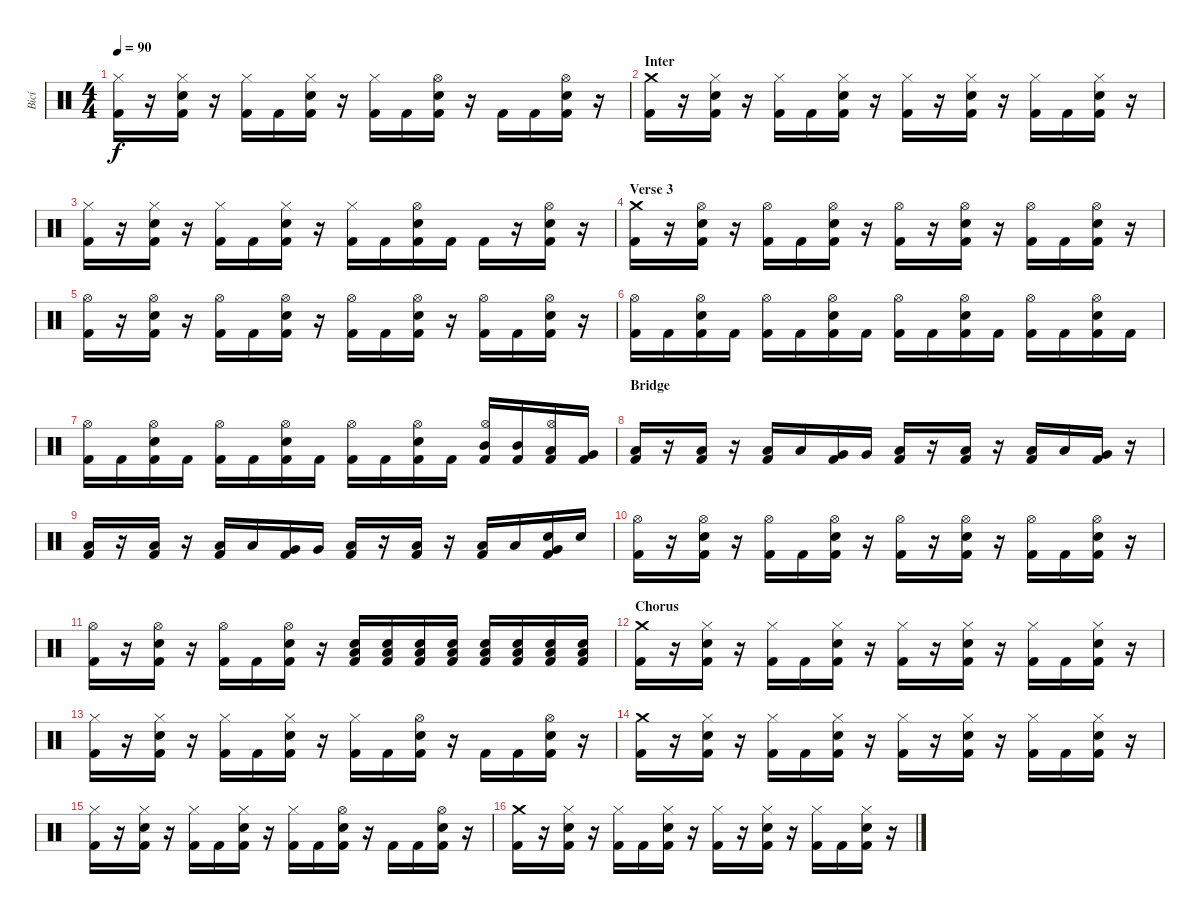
\track ("Bicí" "Bicí") {instrument percussion}
\staff {score}
\articulation defaults
\ts (4 4)
\tempo 90
\clef neutral
\ks c
("Hi-Hat (closed)" "Kick (hit) 2").16{dy f} r.16 ("Hi-Hat (closed)" "Electric Snare (hit)" "Kick (hit) 2").16 r.16 ("Hi-Hat (closed)" "Kick (hit) 2").16 "Kick (hit) 2".16 ("Hi-Hat (closed)" "Electric Snare (hit)" "Kick (hit) 2").16 r.16 ("Hi-Hat (closed)" "Kick (hit) 2").16 "Kick (hit) 2".16 ("Hi-Hat (open)" "Electric Snare (hit)" "Kick (hit) 2").16 r.16 "Kick (hit) 2".16 "Kick (hit) 2".16 ("Hi-Hat (open)" "Electric Snare (hit)" "Kick (hit) 2").16 r.16 |
\section ("" "Inter")
("Crash medium (hit)" "Kick (hit) 2").16 r.16 ("Hi-Hat (closed)" "Electric Snare (hit)" "Kick (hit) 2").16 r.16 ("Hi-Hat (closed)" "Kick (hit) 2").16 "Kick (hit) 2".16 ("Hi-Hat (closed)" "Electric Snare (hit)" "Kick (hit) 2").16 r.16 ("Hi-Hat (closed)" "Kick (hit) 2").16 r.16 ("Hi-Hat (closed)" "Electric Snare (hit)" "Kick (hit) 2").16 r.16 ("Hi-Hat (closed)" "Kick (hit) 2").16 "Kick (hit) 2".16 ("Hi-Hat (closed)" "Electric Snare (hit)" "Kick (hit) 2").16 r.16 |
("Hi-Hat (closed)" "Kick (hit) 2").16 r.16 ("Hi-Hat (closed)" "Electric Snare (hit)" "Kick (hit) 2").16 r.16 ("Hi-Hat (closed)" "Kick (hit) 2").16 "Kick (hit) 2".16 ("Hi-Hat (closed)" "Electric Snare (hit)" "Kick (hit) 2").16 r.16 ("Hi-Hat (closed)" "Kick (hit) 2").16 "Kick (hit) 2".16 ("Hi-Hat (open)" "Electric Snare (hit)" "Kick (hit) 2").16 "Kick (hit) 2".16 "Kick (hit) 2".16 r.16 ("Hi-Hat (open)" "Electric Snare (hit)" "Kick (hit) 2").16 r.16 |
\section ("" "Verse 3")
("Crash medium (hit)" "Kick (hit) 2").16 r.16 ("Hi-Hat (open)" "Electric Snare (hit)" "Kick (hit) 2").16 r.16 ("Hi-Hat (open)" "Kick (hit) 2").16 "Kick (hit) 2".16 ("Hi-Hat (open)" "Electric Snare (hit)" "Kick (hit) 2").16 r.16 ("Hi-Hat (open)" "Kick (hit) 2").16 r.16 ("Hi-Hat (open)" "Electric Snare (hit)" "Kick (hit) 2").16 r.16 ("Hi-Hat (open)" "Kick (hit) 2").16 "Kick (hit) 2".16 ("Hi-Hat (open)" "Electric Snare (hit)" "Kick (hit) 2").16 r.16 |
("Hi-Hat (open)" "Kick (hit) 2").16 r.16 ("Hi-Hat (open)" "Electric Snare (hit)" "Kick (hit) 2").16 r.16 ("Hi-Hat (open)" "Kick (hit) 2").16 "Kick (hit) 2".16 ("Hi-Hat (open)" "Electric Snare (hit)" "Kick (hit) 2").16 r.16 ("Hi-Hat (open)" "Kick (hit) 2").16 "Kick (hit) 2".16 ("Hi-Hat (open)" "Electric Snare (hit)" "Kick (hit) 2").16 r.16 ("Hi-Hat (open)" "Kick (hit) 2").16 "Kick (hit) 2".16 ("Hi-Hat (open)" "Electric Snare (hit)" "Kick (hit) 2").16 r.16 |
("Hi-Hat (open)" "Kick (hit) 2").16 "Kick (hit) 2".16 ("Hi-Hat (open)" "Electric Snare (hit)" "Kick (hit) 2").16 "Kick (hit) 2".16 ("Hi-Hat (open)" "Kick (hit) 2").16 "Kick (hit) 2".16 ("Hi-Hat (open)" "Electric Snare (hit)" "Kick (hit) 2").16 "Kick (hit) 2".16 ("Hi-Hat (open)" "Kick (hit) 2").16 "Kick (hit) 2".16 ("Hi-Hat (open)" "Electric Snare (hit)" "Kick (hit) 2").16 "Kick (hit) 2".16 ("Hi-Hat (open)" "Kick (hit) 2").16 "Kick (hit) 2".16 ("Hi-Hat (open)" "Electric Snare (hit)" "Kick (hit) 2").16 "Kick (hit) 2".16 |
("Hi-Hat (open)" "Kick (hit) 2").16 "Kick (hit) 2".16 ("Hi-Hat (open)" "Electric Snare (hit)" "Kick (hit) 2").16 "Kick (hit) 2".16 ("Hi-Hat (open)" "Kick (hit) 2").16 "Kick (hit) 2".16 ("Hi-Hat (open)" "Electric Snare (hit)" "Kick (hit) 2").16 "Kick (hit) 2".16 ("Hi-Hat (open)" "Kick (hit) 2").16 "Kick (hit) 2".16 ("Hi-Hat (open)" "Electric Snare (hit)" "Kick (hit) 2").16 "Kick (hit) 2".16 ("Hi-Hat (open)" "Mid Tom (hit)" "Kick (hit) 2").16 ("Mid Tom (hit)" "Kick (hit) 2").16 ("Hi-Hat (open)" "Low Tom (hit)" "Kick (hit) 2").16 ("Very Low Tom (hit)" "Kick (hit) 2").16 |
\section ("" "Bridge")
("Low Tom (hit)" "Kick (hit) 2").16 r.16 ("Low Tom (hit)" "Kick (hit) 2").16 r.16 ("Low Tom (hit)" "Kick (hit) 2").16 "Low Tom (hit)".16 ("Very Low Tom (hit)" "Kick (hit) 2").16 "Very Low Tom (hit)".16 ("Low Tom (hit)" "Kick (hit) 2").16 r.16 ("Low Tom (hit)" "Kick (hit) 2").16 r.16 ("Low Tom (hit)" "Kick (hit) 2").16 "Low Tom (hit)".16 ("Very Low Tom (hit)" "Kick (hit) 2").16 r.16 |
("Low Tom (hit)" "Kick (hit) 2").16 r.16 ("Low Tom (hit)" "Kick (hit) 2").16 r.16 ("Low Tom (hit)" "Kick (hit) 2").16 "Low Tom (hit)".16 ("Very Low Tom (hit)" "Kick (hit) 2").16 "Very Low Tom (hit)".16 ("Low Tom (hit)" "Kick (hit) 2").16 r.16 ("Low Tom (hit)" "Kick (hit) 2").16 r.16 ("Low Tom (hit)" "Kick (hit) 2").16 "Low Tom (hit)".16 ("Very Low Tom (hit)" "Electric Snare (hit)" "Kick (hit) 2").16 "Electric Snare (hit)".16 |
("Hi-Hat (open)" "Kick (hit) 2").16 r.16 ("Hi-Hat (open)" "Electric Snare (hit)" "Kick (hit) 2").16 r.16 ("Hi-Hat (open)" "Kick (hit) 2").16 "Kick (hit) 2".16 ("Hi-Hat (open)" "Electric Snare (hit)" "Kick (hit) 2").16 r.16 ("Hi-Hat (open)" "Kick (hit) 2").16 r.16 ("Hi-Hat (open)" "Electric Snare (hit)" "Kick (hit) 2").16 r.16 ("Hi-Hat (open)" "Kick (hit) 2").16 "Kick (hit) 2".16 ("Hi-Hat (open)" "Electric Snare (hit)" "Kick (hit) 2").16 r.16 |
("Hi-Hat (open)" "Kick (hit) 2").16 r.16 ("Hi-Hat (open)" "Electric Snare (hit)" "Kick (hit) 2").16 r.16 ("Hi-Hat (open)" "Kick (hit) 2").16 "Kick (hit) 2".16 ("Hi-Hat (open)" "Electric Snare (hit)" "Kick (hit) 2").16 r.16 ("Low Tom (hit)" "Electric Snare (hit)" "Kick (hit) 2").16 ("Low Tom (hit)" "Electric Snare (hit)" "Kick (hit) 2").16 ("Low Tom (hit)" "Electric Snare (hit)" "Kick (hit) 2").16 ("Low Tom (hit)" "Electric Snare (hit)" "Kick (hit) 2").16 ("Low Tom (hit)" "Electric Snare (hit)" "Kick (hit) 2").16 ("Low Tom (hit)" "Electric Snare (hit)" "Kick (hit) 2").16 ("Low Tom (hit)" "Electric Snare (hit)" "Kick (hit) 2").16 ("Low Tom (hit)" "Electric Snare (hit)" "Kick (hit) 2").16 |
\section ("" "Chorus")
("Crash medium (hit)" "Kick (hit) 2").16 r.16 ("Hi-Hat (closed)" "Electric Snare (hit)" "Kick (hit) 2").16 r.16 ("Hi-Hat (closed)" "Kick (hit) 2").16 "Kick (hit) 2".16 ("Hi-Hat (closed)" "Electric Snare (hit)" "Kick (hit) 2").16 r.16 ("Hi-Hat (closed)" "Kick (hit) 2").16 r.16 ("Hi-Hat (closed)" "Electric Snare (hit)" "Kick (hit) 2").16 r.16 ("Hi-Hat (closed)" "Kick (hit) 2").16 "Kick (hit) 2".16 ("Hi-Hat (closed)" "Electric Snare (hit)" "Kick (hit) 2").16 r.16 |
("Hi-Hat (closed)" "Kick (hit) 2").16 r.16 ("Hi-Hat (closed)" "Electric Snare (hit)" "Kick (hit) 2").16 r.16 ("Hi-Hat (closed)" "Kick (hit) 2").16 "Kick (hit) 2".16 ("Hi-Hat (closed)" "Electric Snare (hit)" "Kick (hit) 2").16 r.16 ("Hi-Hat (closed)" "Kick (hit) 2").16 "Kick (hit) 2".16 ("Hi-Hat (open)" "Electric Snare (hit)" "Kick (hit) 2").16 r.16 "Kick (hit) 2".16 "Kick (hit) 2".16 ("Hi-Hat (open)" "Electric Snare (hit)" "Kick (hit) 2").16 r.16 |
("Crash medium (hit)" "Kick (hit) 2").16 r.16 ("Hi-Hat (closed)" "Electric Snare (hit)" "Kick (hit) 2").16 r.16 ("Hi-Hat (closed)" "Kick (hit) 2").16 "Kick (hit) 2".16 ("Hi-Hat (closed)" "Electric Snare (hit)" "Kick (hit) 2").16 r.16 ("Hi-Hat (closed)" "Kick (hit) 2").16 r.16 ("Hi-Hat (closed)" "Electric Snare (hit)" "Kick (hit) 2").16 r.16 ("Hi-Hat (closed)" "Kick (hit) 2").16 "Kick (hit) 2".16 ("Hi-Hat (closed)" "Electric Snare (hit)" "Kick (hit) 2").16 r.16 |
("Hi-Hat (closed)" "Kick (hit) 2").16 r.16 ("Hi-Hat (closed)" "Electric Snare (hit)" "Kick (hit) 2").16 r.16 ("Hi-Hat (closed)" "Kick (hit) 2").16 "Kick (hit) 2".16 ("Hi-Hat (closed)" "Electric Snare (hit)" "Kick (hit) 2").16 r.16 ("Hi-Hat (closed)" "Kick (hit) 2").16 "Kick (hit) 2".16 ("Hi-Hat (open)" "Electric Snare (hit)" "Kick (hit) 2").16 r.16 "Kick (hit) 2".16 "Kick (hit) 2".16 ("Hi-Hat (open)" "Electric Snare (hit)" "Kick (hit) 2").16 r.16 |
("Crash medium (hit)" "Kick (hit) 2").16 r.16 ("Hi-Hat (closed)" "Electric Snare (hit)" "Kick (hit) 2").16 r.16 ("Hi-Hat (closed)" "Kick (hit) 2").16 "Kick (hit) 2".16 ("Hi-Hat (closed)" "Electric Snare (hit)" "Kick (hit) 2").16 r.16 ("Hi-Hat (closed)" "Kick (hit) 2").16 r.16 ("Hi-Hat (closed)" "Electric Snare (hit)" "Kick (hit) 2").16 r.16 ("Hi-Hat (closed)" "Kick (hit) 2").16 "Kick (hit) 2".16 ("Hi-Hat (closed)" "Electric Snare (hit)" "Kick (hit) 2").16 r.16
